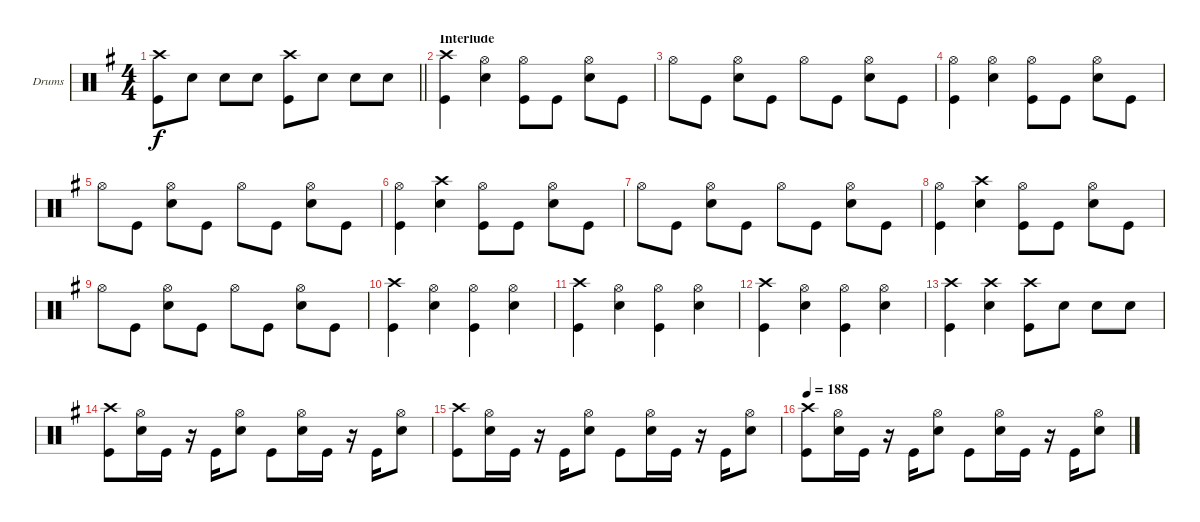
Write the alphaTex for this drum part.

\defaultSystemsLayout 4
\bracketExtendMode groupsimilarinstruments
\firstSystemTrackNameOrientation horizontal
\otherSystemsTrackNameOrientation horizontal
\track ("Drums" "Drums") {instrument percussion}
\staff {score}
\articulation defaults
\ts (4 4)
\tempo (188 hide)
\clef neutral
\barLineRight lightlight
\ks g
("Kick (hit)" "Crash high (hit)").8{dy f} "Snare (hit) 2".8 "Snare (hit) 2".8 "Snare (hit) 2".8 ("Kick (hit)" "Crash high (hit)").8 "Snare (hit) 2".8 "Snare (hit) 2".8 "Snare (hit) 2".8 |
\section ("" "Interlude")
("Kick (hit)" "Crash high (hit)").4 ("Snare (hit) 2" "Hi-Hat (open)").4 ("Kick (hit)" "Hi-Hat (open)").8 "Kick (hit)".8 ("Snare (hit) 2" "Hi-Hat (open)").8 "Kick (hit)".8 |
"Hi-Hat (open)".8 "Kick (hit)".8 ("Snare (hit) 2" "Hi-Hat (open)").8 "Kick (hit)".8 "Hi-Hat (open)".8 "Kick (hit)".8 ("Snare (hit) 2" "Hi-Hat (open)").8 "Kick (hit)".8 |
("Kick (hit)" "Hi-Hat (open)").4 ("Snare (hit) 2" "Hi-Hat (open)").4 ("Kick (hit)" "Hi-Hat (open)").8 "Kick (hit)".8 ("Snare (hit) 2" "Hi-Hat (open)").8 "Kick (hit)".8 |
"Hi-Hat (open)".8 "Kick (hit)".8 ("Snare (hit) 2" "Hi-Hat (open)").8 "Kick (hit)".8 "Hi-Hat (open)".8 "Kick (hit)".8 ("Snare (hit) 2" "Hi-Hat (open)").8 "Kick (hit)".8 |
("Kick (hit)" "Hi-Hat (open)").4 ("Snare (hit) 2" "Crash high (hit)").4 ("Kick (hit)" "Hi-Hat (open)").8 "Kick (hit)".8 ("Snare (hit) 2" "Hi-Hat (open)").8 "Kick (hit)".8 |
"Hi-Hat (open)".8 "Kick (hit)".8 ("Snare (hit) 2" "Hi-Hat (open)").8 "Kick (hit)".8 "Hi-Hat (open)".8 "Kick (hit)".8 ("Snare (hit) 2" "Hi-Hat (open)").8 "Kick (hit)".8 |
("Kick (hit)" "Hi-Hat (open)").4 ("Snare (hit) 2" "Crash high (hit)").4 ("Kick (hit)" "Hi-Hat (open)").8 "Kick (hit)".8 ("Snare (hit) 2" "Hi-Hat (open)").8 "Kick (hit)".8 |
"Hi-Hat (open)".8 "Kick (hit)".8 ("Snare (hit) 2" "Hi-Hat (open)").8 "Kick (hit)".8 "Hi-Hat (open)".8 "Kick (hit)".8 ("Snare (hit) 2" "Hi-Hat (open)").8 "Kick (hit)".8 |
("Kick (hit)" "Crash high (hit)").4 ("Snare (hit) 2" "Hi-Hat (open)").4 ("Kick (hit)" "Hi-Hat (open)").4 ("Snare (hit) 2" "Hi-Hat (open)").4 |
("Kick (hit)" "Crash high (hit)").4 ("Snare (hit) 2" "Hi-Hat (open)").4 ("Kick (hit)" "Hi-Hat (open)").4 ("Snare (hit) 2" "Hi-Hat (open)").4 |
("Kick (hit)" "Crash high (hit)").4 ("Snare (hit) 2" "Hi-Hat (open)").4 ("Kick (hit)" "Hi-Hat (open)").4 ("Snare (hit) 2" "Hi-Hat (open)").4 |
("Kick (hit)" "Crash high (hit)").4 ("Snare (hit) 2" "Crash high (hit)").4 ("Kick (hit)" "Crash high (hit)").8 "Snare (hit) 2".8 "Snare (hit) 2".8 "Snare (hit) 2".8 |
("Kick (hit)" "Crash high (hit)").8 ("Snare (hit) 2" "Hi-Hat (open)").16 "Kick (hit)".16 r.16 "Kick (hit)".16 ("Snare (hit) 2" "Hi-Hat (open)").8 "Kick (hit)".8 ("Snare (hit) 2" "Hi-Hat (open)").16 "Kick (hit)".16 r.16 "Kick (hit)".16 ("Snare (hit) 2" "Hi-Hat (open)").8 |
("Kick (hit)" "Crash high (hit)").8 ("Snare (hit) 2" "Hi-Hat (open)").16 "Kick (hit)".16 r.16 "Kick (hit)".16 ("Snare (hit) 2" "Hi-Hat (open)").8 "Kick (hit)".8 ("Snare (hit) 2" "Hi-Hat (open)").16 "Kick (hit)".16 r.16 "Kick (hit)".16 ("Snare (hit) 2" "Hi-Hat (open)").8 |
\tempo 188
("Kick (hit)" "Crash high (hit)").8 ("Snare (hit) 2" "Hi-Hat (open)").16 "Kick (hit)".16 r.16 "Kick (hit)".16 ("Snare (hit) 2" "Hi-Hat (open)").8 "Kick (hit)".8 ("Snare (hit) 2" "Hi-Hat (open)").16 "Kick (hit)".16 r.16 "Kick (hit)".16 ("Snare (hit) 2" "Hi-Hat (open)").8
